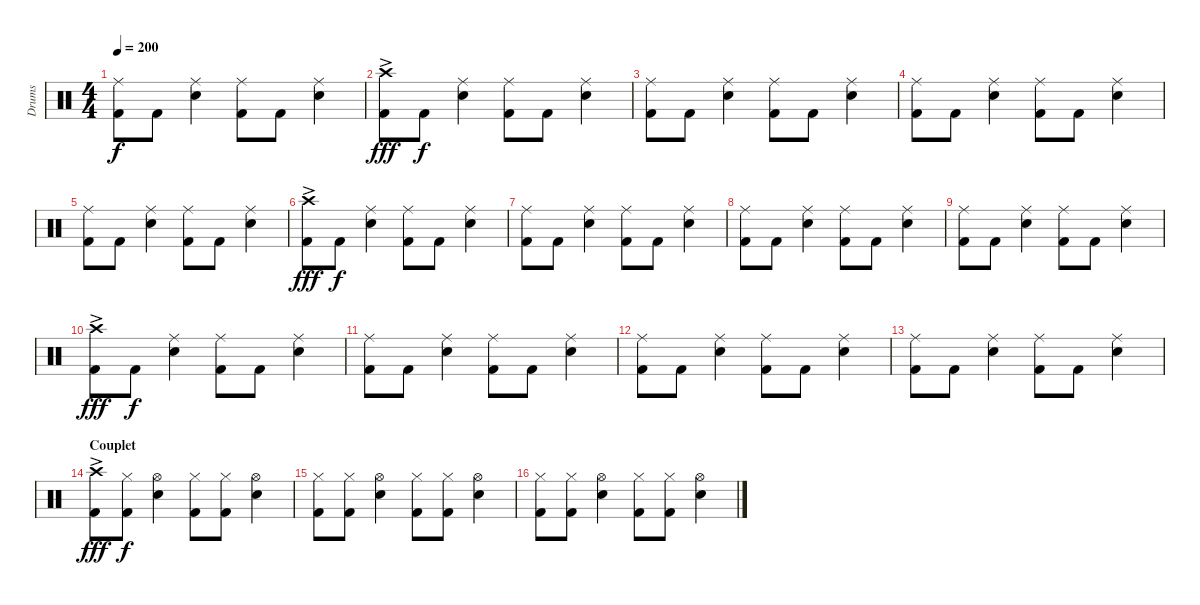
\track ("Drums" "Drums") {instrument percussion}
\staff {score}
\articulation defaults
\ts (4 4)
\tempo 200
\clef neutral
\ks c
("Ride (middle)" "Kick (hit) 2").8{dy f} "Kick (hit) 2".8 ("Ride (middle)" "Snare (hit) 2").4 ("Ride (middle)" "Kick (hit) 2").8 "Kick (hit) 2".8 ("Ride (middle)" "Snare (hit) 2").4 |
("Crash high (hit)"{ac} "Kick (hit) 2").8{dy fff} "Kick (hit) 2".8{dy f} ("Ride (middle)" "Snare (hit) 2").4 ("Ride (middle)" "Kick (hit) 2").8 "Kick (hit) 2".8 ("Ride (middle)" "Snare (hit) 2").4 |
("Ride (middle)" "Kick (hit) 2").8 "Kick (hit) 2".8 ("Ride (middle)" "Snare (hit) 2").4 ("Ride (middle)" "Kick (hit) 2").8 "Kick (hit) 2".8 ("Ride (middle)" "Snare (hit) 2").4 |
("Ride (middle)" "Kick (hit) 2").8 "Kick (hit) 2".8 ("Ride (middle)" "Snare (hit) 2").4 ("Ride (middle)" "Kick (hit) 2").8 "Kick (hit) 2".8 ("Ride (middle)" "Snare (hit) 2").4 |
("Ride (middle)" "Kick (hit) 2").8 "Kick (hit) 2".8 ("Ride (middle)" "Snare (hit) 2").4 ("Ride (middle)" "Kick (hit) 2").8 "Kick (hit) 2".8 ("Ride (middle)" "Snare (hit) 2").4 |
("Crash high (hit)"{ac} "Kick (hit) 2").8{dy fff} "Kick (hit) 2".8{dy f} ("Ride (middle)" "Snare (hit) 2").4 ("Ride (middle)" "Kick (hit) 2").8 "Kick (hit) 2".8 ("Ride (middle)" "Snare (hit) 2").4 |
("Ride (middle)" "Kick (hit) 2").8 "Kick (hit) 2".8 ("Ride (middle)" "Snare (hit) 2").4 ("Ride (middle)" "Kick (hit) 2").8 "Kick (hit) 2".8 ("Ride (middle)" "Snare (hit) 2").4 |
("Ride (middle)" "Kick (hit) 2").8 "Kick (hit) 2".8 ("Ride (middle)" "Snare (hit) 2").4 ("Ride (middle)" "Kick (hit) 2").8 "Kick (hit) 2".8 ("Ride (middle)" "Snare (hit) 2").4 |
("Ride (middle)" "Kick (hit) 2").8 "Kick (hit) 2".8 ("Ride (middle)" "Snare (hit) 2").4 ("Ride (middle)" "Kick (hit) 2").8 "Kick (hit) 2".8 ("Ride (middle)" "Snare (hit) 2").4 |
("Crash high (hit)"{ac} "Kick (hit) 2").8{dy fff} "Kick (hit) 2".8{dy f} ("Ride (middle)" "Snare (hit) 2").4 ("Ride (middle)" "Kick (hit) 2").8 "Kick (hit) 2".8 ("Ride (middle)" "Snare (hit) 2").4 |
("Ride (middle)" "Kick (hit) 2").8 "Kick (hit) 2".8 ("Ride (middle)" "Snare (hit) 2").4 ("Ride (middle)" "Kick (hit) 2").8 "Kick (hit) 2".8 ("Ride (middle)" "Snare (hit) 2").4 |
("Ride (middle)" "Kick (hit) 2").8 "Kick (hit) 2".8 ("Ride (middle)" "Snare (hit) 2").4 ("Ride (middle)" "Kick (hit) 2").8 "Kick (hit) 2".8 ("Ride (middle)" "Snare (hit) 2").4 |
("Ride (middle)" "Kick (hit) 2").8 "Kick (hit) 2".8 ("Ride (middle)" "Snare (hit) 2").4 ("Ride (middle)" "Kick (hit) 2").8 "Kick (hit) 2".8 ("Ride (middle)" "Snare (hit) 2").4 |
\section ("" "Couplet")
("Crash high (hit)"{ac} "Kick (hit) 2").8{dy fff} ("Hi-Hat (closed)" "Kick (hit) 2").8{dy f} ("Hi-Hat (open)" "Snare (hit) 2").4 ("Hi-Hat (closed)" "Kick (hit) 2").8 ("Hi-Hat (closed)" "Kick (hit) 2").8 ("Hi-Hat (open)" "Snare (hit) 2").4 |
("Hi-Hat (closed)" "Kick (hit) 2").8 ("Hi-Hat (closed)" "Kick (hit) 2").8 ("Hi-Hat (open)" "Snare (hit) 2").4 ("Hi-Hat (closed)" "Kick (hit) 2").8 ("Hi-Hat (closed)" "Kick (hit) 2").8 ("Hi-Hat (open)" "Snare (hit) 2").4 |
("Hi-Hat (closed)" "Kick (hit) 2").8 ("Hi-Hat (closed)" "Kick (hit) 2").8 ("Hi-Hat (open)" "Snare (hit) 2").4 ("Hi-Hat (closed)" "Kick (hit) 2").8 ("Hi-Hat (closed)" "Kick (hit) 2").8 ("Hi-Hat (open)" "Snare (hit) 2").4
